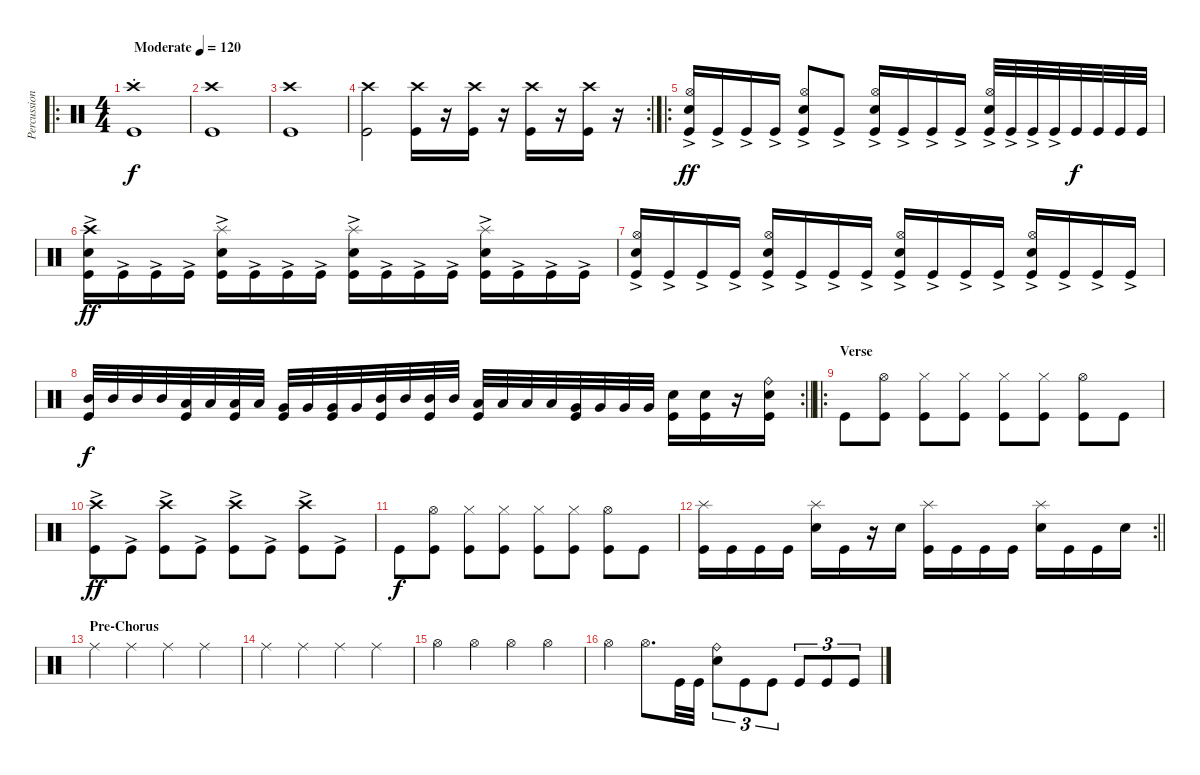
\track ("Percussion" "Percussion") {instrument percussion}
\staff {score}
\articulation defaults
\ro
\ts (4 4)
\tempo (120 "Moderate")
\clef neutral
\ks c
("Crash high (hit)"{st} "Kick (hit)").1{dy f} |
("Crash high (hit)" "Kick (hit)").1 |
("Crash high (hit)" "Kick (hit)").1 |
\rc 2
("Crash high (hit)" "Kick (hit)").2 ("Crash high (hit)" "Kick (hit)").16 r.16 ("Crash high (hit)" "Kick (hit)").16 r.16 ("Crash high (hit)" "Kick (hit)").16 r.16 ("Crash high (hit)" "Kick (hit)").16 r.16 |
\ro
("Hi-Hat (open)" "Electric Snare (hit)"{ac} "Kick (hit)"{ac}).16{dy ff} "Kick (hit)"{ac}.16 "Kick (hit)"{ac}.16 "Kick (hit)"{ac}.16 ("Hi-Hat (open)" "Electric Snare (hit)"{ac} "Kick (hit)"{ac}).8 "Kick (hit)"{ac}.8 ("Hi-Hat (open)" "Electric Snare (hit)"{ac} "Kick (hit)"{ac}).16 "Kick (hit)"{ac}.16 "Kick (hit)"{ac}.16 "Kick (hit)"{ac}.16 ("Hi-Hat (open)" "Electric Snare (hit)"{ac} "Kick (hit)"{ac}).32 "Kick (hit)"{ac}.32 "Kick (hit)"{ac}.32 "Kick (hit)"{ac}.32 "Kick (hit)".32{dy f} "Kick (hit)".32 "Kick (hit)".32 "Kick (hit)".32 |
("Crash high (hit)" "Electric Snare (hit)"{ac} "Kick (hit)"{ac}).16{dy ff} "Kick (hit)"{ac}.16 "Kick (hit)"{ac}.16 "Kick (hit)"{ac}.16 ("Splash (hit)" "Electric Snare (hit)"{ac} "Kick (hit)"{ac}).16 "Kick (hit)"{ac}.16 "Kick (hit)"{ac}.16 "Kick (hit)"{ac}.16 ("Splash (hit)" "Electric Snare (hit)"{ac} "Kick (hit)"{ac}).16 "Kick (hit)"{ac}.16 "Kick (hit)"{ac}.16 "Kick (hit)"{ac}.16 ("Splash (hit)" "Electric Snare (hit)"{ac} "Kick (hit)"{ac}).16 "Kick (hit)"{ac}.16 "Kick (hit)"{ac}.16 "Kick (hit)"{ac}.16 |
("Hi-Hat (open)" "Electric Snare (hit)"{ac} "Kick (hit)"{ac}).16 "Kick (hit)"{ac}.16 "Kick (hit)"{ac}.16 "Kick (hit)"{ac}.16 ("Hi-Hat (open)" "Electric Snare (hit)"{ac} "Kick (hit)"{ac}).16 "Kick (hit)"{ac}.16 "Kick (hit)"{ac}.16 "Kick (hit)"{ac}.16 ("Hi-Hat (open)" "Electric Snare (hit)"{ac} "Kick (hit)"{ac}).16 "Kick (hit)"{ac}.16 "Kick (hit)"{ac}.16 "Kick (hit)"{ac}.16 ("Hi-Hat (open)" "Electric Snare (hit)"{ac} "Kick (hit)"{ac}).16 "Kick (hit)"{ac}.16 "Kick (hit)"{ac}.16 "Kick (hit)"{ac}.16 |
\rc 2
\barLineRight lightlight
("Mid Tom (hit)" "Kick (hit)").32{dy f} "Mid Tom (hit)".32 "Mid Tom (hit)".32 "Mid Tom (hit)".32 ("Low Tom (hit)" "Kick (hit)").32 "Low Tom (hit)".32 ("Low Tom (hit)" "Kick (hit)").32 "Low Tom (hit)".32 ("Very Low Tom (hit)" "Kick (hit)").32 "Very Low Tom (hit)".32 ("Very Low Tom (hit)" "Kick (hit)").32 "Very Low Tom (hit)".32 ("Mid Tom (hit)" "Kick (hit)").32 "Mid Tom (hit)".32 ("Mid Tom (hit)" "Kick (hit)").32 "Mid Tom (hit)".32 ("Low Tom (hit)" "Kick (hit)").32 "Low Tom (hit)".32 "Low Tom (hit)".32 "Low Tom (hit)".32 ("Very Low Tom (hit)" "Kick (hit)").32 "Very Low Tom (hit)".32 "Very Low Tom (hit)".32 "Very Low Tom (hit)".32 ("Electric Snare (hit)" "Kick (hit)").16 ("Electric Snare (hit)" "Kick (hit)").16 r.16 ("Ride (bell)" "Electric Snare (hit)" "Kick (hit)").16 |
\ro
\section ("" "Verse ")
"Kick (hit)".8 ("Hi-Hat (open)" "Kick (hit)").8 ("Hi-Hat (closed)" "Kick (hit)").8 ("Hi-Hat (closed)" "Kick (hit)").8 ("Hi-Hat (closed)" "Kick (hit)").8 ("Hi-Hat (closed)" "Kick (hit)").8 ("Hi-Hat (open)" "Kick (hit)").8 "Kick (hit)".8 |
("Crash high (hit)" "Kick (hit)"{ac}).8{dy ff} "Kick (hit)"{ac}.8 ("Crash high (hit)" "Kick (hit)"{ac}).8 "Kick (hit)"{ac}.8 ("Crash high (hit)" "Kick (hit)"{ac}).8 "Kick (hit)"{ac}.8 ("Crash high (hit)" "Kick (hit)"{ac}).8 "Kick (hit)"{ac}.8 |
"Kick (hit)".8{dy f} ("Hi-Hat (open)" "Kick (hit)").8 ("Hi-Hat (closed)" "Kick (hit)").8 ("Hi-Hat (closed)" "Kick (hit)").8 ("Hi-Hat (closed)" "Kick (hit)").8 ("Hi-Hat (closed)" "Kick (hit)").8 ("Hi-Hat (open)" "Kick (hit)").8 "Kick (hit)".8 |
\rc 2
\barLineRight lightlight
("Splash (hit)" "Kick (hit)").16 "Kick (hit)".16 "Kick (hit)".16 "Kick (hit)".16 ("Splash (hit)" "Electric Snare (hit)").16 "Kick (hit)".16 r.16 "Electric Snare (hit)".16 ("Splash (hit)" "Kick (hit)").16 "Kick (hit)".16 "Kick (hit)".16 "Kick (hit)".16 ("Splash (hit)" "Electric Snare (hit)").16 "Kick (hit)".16 "Kick (hit)".16 "Electric Snare (hit)".16 |
\section ("" "Pre-Chorus")
"Ride (middle)".4 "Ride (middle)".4 "Ride (middle)".4 "Ride (middle)".4 |
"Ride (middle)".4 "Ride (middle)".4 "Ride (middle)".4 "Ride (middle)".4 |
"Hi-Hat (open)".4 "Hi-Hat (open)".4 "Hi-Hat (open)".4 "Hi-Hat (open)".4 |
"Hi-Hat (open)".4 "Hi-Hat (open)".8{d} "Kick (hit)".32 "Kick (hit)".32 ("Ride (bell)" "Electric Snare (hit)").8{tu (3 2)} "Kick (hit)".8{tu (3 2)} "Kick (hit)".8{tu (3 2)} "Kick (hit)".8{tu (3 2)} "Kick (hit)".8{tu (3 2)} "Kick (hit)".8{tu (3 2)}
